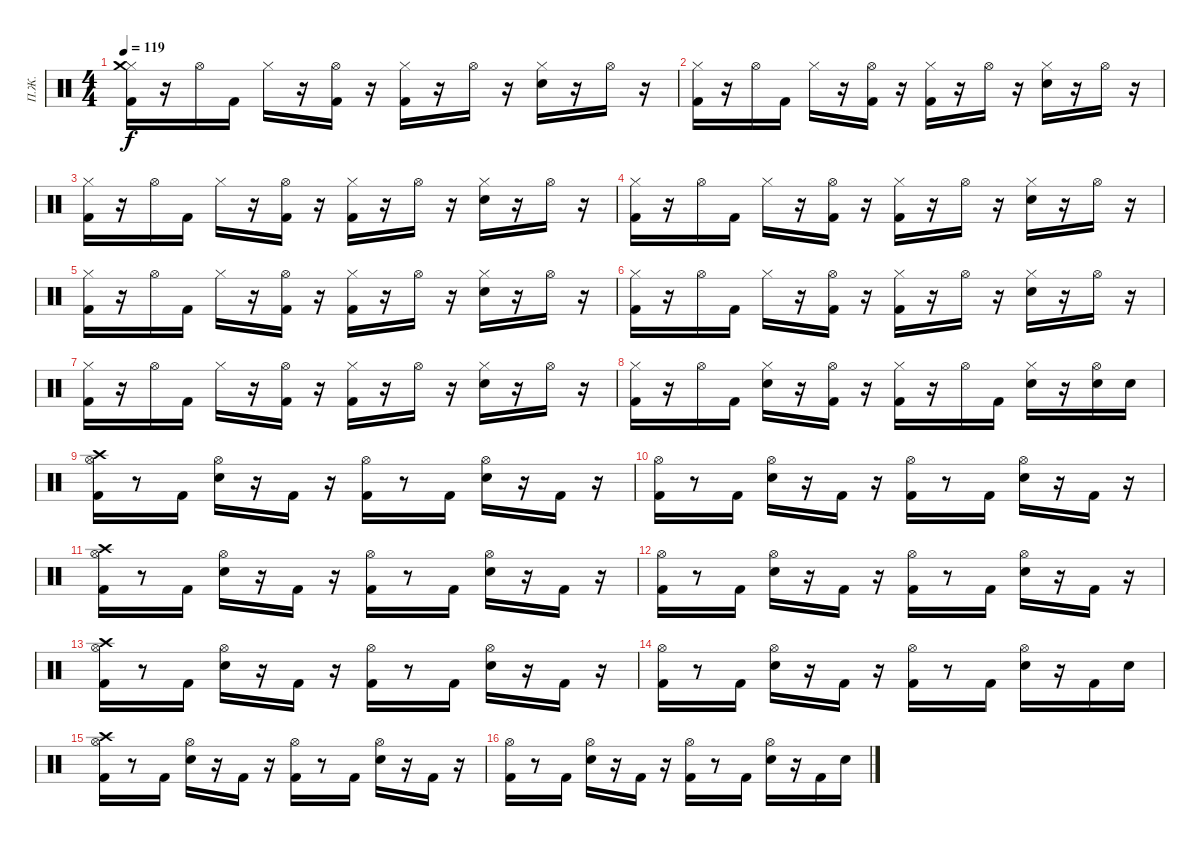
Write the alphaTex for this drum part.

\track ("П.Ж." "П.Ж.") {instrument percussion}
\staff {score}
\articulation defaults
\ts (4 4)
\tempo 119
\clef neutral
\ks c
("Hi-Hat (closed)" "Kick (hit) 2" "Crash medium (hit)").16{dy f} r.16 "Hi-Hat (open)".16 "Kick (hit) 2".16 "Hi-Hat (closed)".16 r.16 ("Hi-Hat (open)" "Kick (hit) 2").16 r.16 ("Hi-Hat (closed)" "Kick (hit) 2").16 r.16 "Hi-Hat (open)".16 r.16 ("Hi-Hat (closed)" "Electric Snare (hit)").16 r.16 "Hi-Hat (open)".16 r.16 |
("Hi-Hat (closed)" "Kick (hit) 2").16 r.16 "Hi-Hat (open)".16 "Kick (hit) 2".16 "Hi-Hat (closed)".16 r.16 ("Hi-Hat (open)" "Kick (hit) 2").16 r.16 ("Hi-Hat (closed)" "Kick (hit) 2").16 r.16 "Hi-Hat (open)".16 r.16 ("Hi-Hat (closed)" "Electric Snare (hit)").16 r.16 "Hi-Hat (open)".16 r.16 |
("Hi-Hat (closed)" "Kick (hit) 2").16 r.16 "Hi-Hat (open)".16 "Kick (hit) 2".16 "Hi-Hat (closed)".16 r.16 ("Hi-Hat (open)" "Kick (hit) 2").16 r.16 ("Hi-Hat (closed)" "Kick (hit) 2").16 r.16 "Hi-Hat (open)".16 r.16 ("Hi-Hat (closed)" "Electric Snare (hit)").16 r.16 "Hi-Hat (open)".16 r.16 |
("Hi-Hat (closed)" "Kick (hit) 2").16 r.16 "Hi-Hat (open)".16 "Kick (hit) 2".16 "Hi-Hat (closed)".16 r.16 ("Hi-Hat (open)" "Kick (hit) 2").16 r.16 ("Hi-Hat (closed)" "Kick (hit) 2").16 r.16 "Hi-Hat (open)".16 r.16 ("Hi-Hat (closed)" "Electric Snare (hit)").16 r.16 "Hi-Hat (open)".16 r.16 |
("Hi-Hat (closed)" "Kick (hit) 2").16 r.16 "Hi-Hat (open)".16 "Kick (hit) 2".16 "Hi-Hat (closed)".16 r.16 ("Hi-Hat (open)" "Kick (hit) 2").16 r.16 ("Hi-Hat (closed)" "Kick (hit) 2").16 r.16 "Hi-Hat (open)".16 r.16 ("Hi-Hat (closed)" "Electric Snare (hit)").16 r.16 "Hi-Hat (open)".16 r.16 |
("Hi-Hat (closed)" "Kick (hit) 2").16 r.16 "Hi-Hat (open)".16 "Kick (hit) 2".16 "Hi-Hat (closed)".16 r.16 ("Hi-Hat (open)" "Kick (hit) 2").16 r.16 ("Hi-Hat (closed)" "Kick (hit) 2").16 r.16 "Hi-Hat (open)".16 r.16 ("Hi-Hat (closed)" "Electric Snare (hit)").16 r.16 "Hi-Hat (open)".16 r.16 |
("Hi-Hat (closed)" "Kick (hit) 2").16 r.16 "Hi-Hat (open)".16 "Kick (hit) 2".16 "Hi-Hat (closed)".16 r.16 ("Hi-Hat (open)" "Kick (hit) 2").16 r.16 ("Hi-Hat (closed)" "Kick (hit) 2").16 r.16 "Hi-Hat (open)".16 r.16 ("Hi-Hat (closed)" "Electric Snare (hit)").16 r.16 "Hi-Hat (open)".16 r.16 |
("Hi-Hat (closed)" "Kick (hit) 2").16 r.16 "Hi-Hat (open)".16 "Kick (hit) 2".16 ("Hi-Hat (closed)" "Electric Snare (hit)").16 r.16 ("Hi-Hat (open)" "Kick (hit) 2").16 r.16 ("Kick (hit) 2" "Hi-Hat (closed)").16 r.16 "Hi-Hat (open)".16 "Kick (hit) 2".16 ("Electric Snare (hit)" "Hi-Hat (closed)").16 r.16 ("Hi-Hat (open)" "Electric Snare (hit)").16 "Electric Snare (hit)".16 |
("Kick (hit) 2" "Crash high (hit)" "Hi-Hat (open)").16 r.8 "Kick (hit) 2".16 ("Electric Snare (hit)" "Hi-Hat (open)").16 r.16 "Kick (hit) 2".16 r.16 ("Kick (hit) 2" "Hi-Hat (open)").16 r.8 "Kick (hit) 2".16 ("Electric Snare (hit)" "Hi-Hat (open)").16 r.16 "Kick (hit) 2".16 r.16 |
("Hi-Hat (open)" "Kick (hit) 2").16 r.8 "Kick (hit) 2".16 ("Hi-Hat (open)" "Electric Snare (hit)").16 r.16 "Kick (hit) 2".16 r.16 ("Hi-Hat (open)" "Kick (hit) 2").16 r.8 "Kick (hit) 2".16 ("Hi-Hat (open)" "Electric Snare (hit)").16 r.16 "Kick (hit) 2".16 r.16 |
("Kick (hit) 2" "Crash high (hit)" "Hi-Hat (open)").16 r.8 "Kick (hit) 2".16 ("Electric Snare (hit)" "Hi-Hat (open)").16 r.16 "Kick (hit) 2".16 r.16 ("Kick (hit) 2" "Hi-Hat (open)").16 r.8 "Kick (hit) 2".16 ("Electric Snare (hit)" "Hi-Hat (open)").16 r.16 "Kick (hit) 2".16 r.16 |
("Hi-Hat (open)" "Kick (hit) 2").16 r.8 "Kick (hit) 2".16 ("Hi-Hat (open)" "Electric Snare (hit)").16 r.16 "Kick (hit) 2".16 r.16 ("Hi-Hat (open)" "Kick (hit) 2").16 r.8 "Kick (hit) 2".16 ("Hi-Hat (open)" "Electric Snare (hit)").16 r.16 "Kick (hit) 2".16 r.16 |
("Kick (hit) 2" "Crash high (hit)" "Hi-Hat (open)").16 r.8 "Kick (hit) 2".16 ("Electric Snare (hit)" "Hi-Hat (open)").16 r.16 "Kick (hit) 2".16 r.16 ("Kick (hit) 2" "Hi-Hat (open)").16 r.8 "Kick (hit) 2".16 ("Electric Snare (hit)" "Hi-Hat (open)").16 r.16 "Kick (hit) 2".16 r.16 |
("Hi-Hat (open)" "Kick (hit) 2").16 r.8 "Kick (hit) 2".16 ("Hi-Hat (open)" "Electric Snare (hit)").16 r.16 "Kick (hit) 2".16 r.16 ("Hi-Hat (open)" "Kick (hit) 2").16 r.8 "Kick (hit) 2".16 ("Hi-Hat (open)" "Electric Snare (hit)").16 r.16 "Kick (hit) 2".16 "Electric Snare (hit)".16 |
("Kick (hit) 2" "Crash high (hit)" "Hi-Hat (open)").16 r.8 "Kick (hit) 2".16 ("Electric Snare (hit)" "Hi-Hat (open)").16 r.16 "Kick (hit) 2".16 r.16 ("Kick (hit) 2" "Hi-Hat (open)").16 r.8 "Kick (hit) 2".16 ("Electric Snare (hit)" "Hi-Hat (open)").16 r.16 "Kick (hit) 2".16 r.16 |
("Hi-Hat (open)" "Kick (hit) 2").16 r.8 "Kick (hit) 2".16 ("Hi-Hat (open)" "Electric Snare (hit)").16 r.16 "Kick (hit) 2".16 r.16 ("Hi-Hat (open)" "Kick (hit) 2").16 r.8 "Kick (hit) 2".16 ("Hi-Hat (open)" "Electric Snare (hit)").16 r.16 "Kick (hit) 2".16 "Electric Snare (hit)".16
